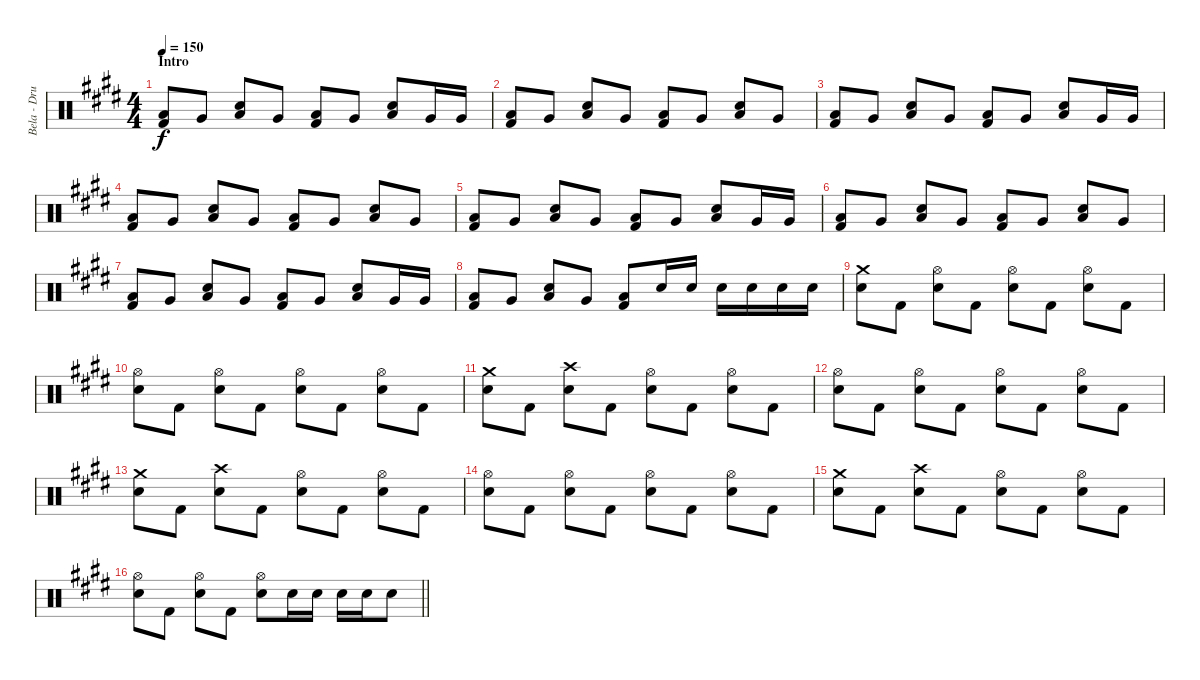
\track ("Bela - Drums" "Bela - Dru") {instrument percussion}
\staff {score}
\articulation defaults
\ts (4 4)
\section ("" "Intro")
\tempo 150
\clef neutral
\ks e
("Low Tom (hit)" "Kick (hit) 2").8{dy f} "Very Low Tom (hit)".8 ("Electric Snare (hit)" "Low Tom (hit)").8 "Very Low Tom (hit)".8 ("Low Tom (hit)" "Kick (hit) 2").8 "Very Low Tom (hit)".8 ("Electric Snare (hit)" "Low Tom (hit)").8 "Very Low Tom (hit)".16 "Very Low Tom (hit)".16 |
("Low Tom (hit)" "Kick (hit) 2").8 "Very Low Tom (hit)".8 ("Electric Snare (hit)" "Low Tom (hit)").8 "Very Low Tom (hit)".8 ("Low Tom (hit)" "Kick (hit) 2").8 "Very Low Tom (hit)".8 ("Electric Snare (hit)" "Low Tom (hit)").8 "Very Low Tom (hit)".8 |
("Low Tom (hit)" "Kick (hit) 2").8 "Very Low Tom (hit)".8 ("Electric Snare (hit)" "Low Tom (hit)").8 "Very Low Tom (hit)".8 ("Low Tom (hit)" "Kick (hit) 2").8 "Very Low Tom (hit)".8 ("Electric Snare (hit)" "Low Tom (hit)").8 "Very Low Tom (hit)".16 "Very Low Tom (hit)".16 |
("Low Tom (hit)" "Kick (hit) 2").8 "Very Low Tom (hit)".8 ("Electric Snare (hit)" "Low Tom (hit)").8 "Very Low Tom (hit)".8 ("Low Tom (hit)" "Kick (hit) 2").8 "Very Low Tom (hit)".8 ("Electric Snare (hit)" "Low Tom (hit)").8 "Very Low Tom (hit)".8 |
("Low Tom (hit)" "Kick (hit) 2").8 "Very Low Tom (hit)".8 ("Electric Snare (hit)" "Low Tom (hit)").8 "Very Low Tom (hit)".8 ("Low Tom (hit)" "Kick (hit) 2").8 "Very Low Tom (hit)".8 ("Electric Snare (hit)" "Low Tom (hit)").8 "Very Low Tom (hit)".16 "Very Low Tom (hit)".16 |
("Low Tom (hit)" "Kick (hit) 2").8 "Very Low Tom (hit)".8 ("Electric Snare (hit)" "Low Tom (hit)").8 "Very Low Tom (hit)".8 ("Low Tom (hit)" "Kick (hit) 2").8 "Very Low Tom (hit)".8 ("Electric Snare (hit)" "Low Tom (hit)").8 "Very Low Tom (hit)".8 |
("Low Tom (hit)" "Kick (hit) 2").8 "Very Low Tom (hit)".8 ("Electric Snare (hit)" "Low Tom (hit)").8 "Very Low Tom (hit)".8 ("Low Tom (hit)" "Kick (hit) 2").8 "Very Low Tom (hit)".8 ("Electric Snare (hit)" "Low Tom (hit)").8 "Very Low Tom (hit)".16 "Very Low Tom (hit)".16 |
("Low Tom (hit)" "Kick (hit) 2").8 "Very Low Tom (hit)".8 ("Electric Snare (hit)" "Low Tom (hit)").8 "Very Low Tom (hit)".8 ("Low Tom (hit)" "Kick (hit) 2").8 "Electric Snare (hit)".16 "Electric Snare (hit)".16 "Electric Snare (hit)".16 "Electric Snare (hit)".16 "Electric Snare (hit)".16 "Electric Snare (hit)".16 |
("Crash medium (hit)" "Electric Snare (hit)").8 "Kick (hit) 2".8 ("Hi-Hat (open)" "Electric Snare (hit)").8 "Kick (hit) 2".8 ("Hi-Hat (open)" "Electric Snare (hit)").8 "Kick (hit) 2".8 ("Hi-Hat (open)" "Electric Snare (hit)").8 "Kick (hit) 2".8 |
("Hi-Hat (open)" "Electric Snare (hit)").8 "Kick (hit) 2".8 ("Hi-Hat (open)" "Electric Snare (hit)").8 "Kick (hit) 2".8 ("Hi-Hat (open)" "Electric Snare (hit)").8 "Kick (hit) 2".8 ("Hi-Hat (open)" "Electric Snare (hit)").8 "Kick (hit) 2".8 |
("Crash medium (hit)" "Electric Snare (hit)").8 "Kick (hit) 2".8 ("Crash high (hit)" "Electric Snare (hit)").8 "Kick (hit) 2".8 ("Hi-Hat (open)" "Electric Snare (hit)").8 "Kick (hit) 2".8 ("Hi-Hat (open)" "Electric Snare (hit)").8 "Kick (hit) 2".8 |
("Hi-Hat (open)" "Electric Snare (hit)").8 "Kick (hit) 2".8 ("Hi-Hat (open)" "Electric Snare (hit)").8 "Kick (hit) 2".8 ("Hi-Hat (open)" "Electric Snare (hit)").8 "Kick (hit) 2".8 ("Hi-Hat (open)" "Electric Snare (hit)").8 "Kick (hit) 2".8 |
("Crash medium (hit)" "Electric Snare (hit)").8 "Kick (hit) 2".8 ("Crash high (hit)" "Electric Snare (hit)").8 "Kick (hit) 2".8 ("Hi-Hat (open)" "Electric Snare (hit)").8 "Kick (hit) 2".8 ("Hi-Hat (open)" "Electric Snare (hit)").8 "Kick (hit) 2".8 |
("Hi-Hat (open)" "Electric Snare (hit)").8 "Kick (hit) 2".8 ("Hi-Hat (open)" "Electric Snare (hit)").8 "Kick (hit) 2".8 ("Hi-Hat (open)" "Electric Snare (hit)").8 "Kick (hit) 2".8 ("Hi-Hat (open)" "Electric Snare (hit)").8 "Kick (hit) 2".8 |
("Crash medium (hit)" "Electric Snare (hit)").8 "Kick (hit) 2".8 ("Crash high (hit)" "Electric Snare (hit)").8 "Kick (hit) 2".8 ("Hi-Hat (open)" "Electric Snare (hit)").8 "Kick (hit) 2".8 ("Hi-Hat (open)" "Electric Snare (hit)").8 "Kick (hit) 2".8 |
\barLineRight lightlight
("Hi-Hat (open)" "Electric Snare (hit)").8 "Kick (hit) 2".8 ("Hi-Hat (open)" "Electric Snare (hit)").8 "Kick (hit) 2".8 ("Hi-Hat (open)" "Electric Snare (hit)").8 "Electric Snare (hit)".16 "Electric Snare (hit)".16 "Electric Snare (hit)".16 "Electric Snare (hit)".16 "Electric Snare (hit)".8
